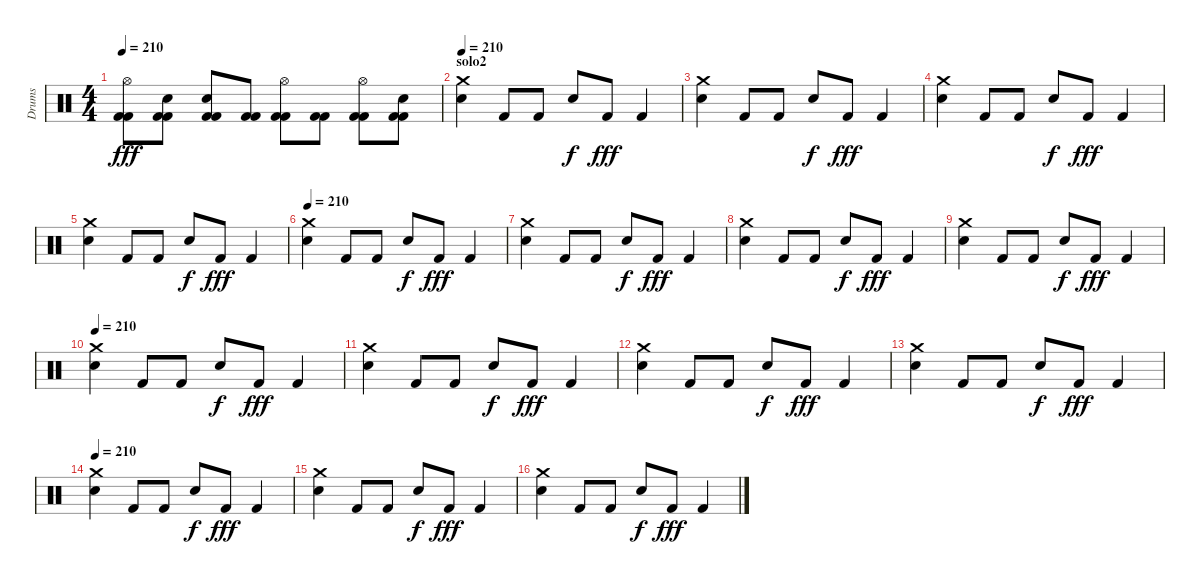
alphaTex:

\track ("Drums" "Drums") {instrument percussion}
\staff {score}
\articulation defaults
\ts (4 4)
\tempo 210
\clef neutral
\ks c
("Hi-Hat (open)" "Kick (hit) 2" "Kick (hit) 2").8{dy fff} ("Electric Snare (hit)" "Kick (hit) 2" "Kick (hit) 2").8 ("Electric Snare (hit)" "Kick (hit) 2" "Kick (hit) 2").8 ("Kick (hit) 2" "Kick (hit) 2").8 ("Hi-Hat (open)" "Kick (hit) 2" "Kick (hit) 2").8 ("Kick (hit) 2" "Kick (hit) 2").8 ("Hi-Hat (open)" "Kick (hit) 2" "Kick (hit) 2").8 ("Electric Snare (hit)" "Kick (hit) 2" "Kick (hit) 2").8 |
\section ("" "solo2")
\tempo 210
("Crash medium (hit)" "Electric Snare (hit)").4 "Kick (hit) 2".8 "Kick (hit) 2".8 "Electric Snare (hit)".8{dy f} "Kick (hit) 2".8{dy fff} "Kick (hit) 2".4 |
("Crash medium (hit)" "Electric Snare (hit)").4 "Kick (hit) 2".8 "Kick (hit) 2".8 "Electric Snare (hit)".8{dy f} "Kick (hit) 2".8{dy fff} "Kick (hit) 2".4 |
("Crash medium (hit)" "Electric Snare (hit)").4 "Kick (hit) 2".8 "Kick (hit) 2".8 "Electric Snare (hit)".8{dy f} "Kick (hit) 2".8{dy fff} "Kick (hit) 2".4 |
("Crash medium (hit)" "Electric Snare (hit)").4 "Kick (hit) 2".8 "Kick (hit) 2".8 "Electric Snare (hit)".8{dy f} "Kick (hit) 2".8{dy fff} "Kick (hit) 2".4 |
\tempo 210
("Crash medium (hit)" "Electric Snare (hit)").4 "Kick (hit) 2".8 "Kick (hit) 2".8 "Electric Snare (hit)".8{dy f} "Kick (hit) 2".8{dy fff} "Kick (hit) 2".4 |
("Crash medium (hit)" "Electric Snare (hit)").4 "Kick (hit) 2".8 "Kick (hit) 2".8 "Electric Snare (hit)".8{dy f} "Kick (hit) 2".8{dy fff} "Kick (hit) 2".4 |
("Crash medium (hit)" "Electric Snare (hit)").4 "Kick (hit) 2".8 "Kick (hit) 2".8 "Electric Snare (hit)".8{dy f} "Kick (hit) 2".8{dy fff} "Kick (hit) 2".4 |
("Crash medium (hit)" "Electric Snare (hit)").4 "Kick (hit) 2".8 "Kick (hit) 2".8 "Electric Snare (hit)".8{dy f} "Kick (hit) 2".8{dy fff} "Kick (hit) 2".4 |
\tempo 210
("Crash medium (hit)" "Electric Snare (hit)").4 "Kick (hit) 2".8 "Kick (hit) 2".8 "Electric Snare (hit)".8{dy f} "Kick (hit) 2".8{dy fff} "Kick (hit) 2".4 |
("Crash medium (hit)" "Electric Snare (hit)").4 "Kick (hit) 2".8 "Kick (hit) 2".8 "Electric Snare (hit)".8{dy f} "Kick (hit) 2".8{dy fff} "Kick (hit) 2".4 |
("Crash medium (hit)" "Electric Snare (hit)").4 "Kick (hit) 2".8 "Kick (hit) 2".8 "Electric Snare (hit)".8{dy f} "Kick (hit) 2".8{dy fff} "Kick (hit) 2".4 |
("Crash medium (hit)" "Electric Snare (hit)").4 "Kick (hit) 2".8 "Kick (hit) 2".8 "Electric Snare (hit)".8{dy f} "Kick (hit) 2".8{dy fff} "Kick (hit) 2".4 |
\tempo 210
("Crash medium (hit)" "Electric Snare (hit)").4 "Kick (hit) 2".8 "Kick (hit) 2".8 "Electric Snare (hit)".8{dy f} "Kick (hit) 2".8{dy fff} "Kick (hit) 2".4 |
("Crash medium (hit)" "Electric Snare (hit)").4 "Kick (hit) 2".8 "Kick (hit) 2".8 "Electric Snare (hit)".8{dy f} "Kick (hit) 2".8{dy fff} "Kick (hit) 2".4 |
("Crash medium (hit)" "Electric Snare (hit)").4 "Kick (hit) 2".8 "Kick (hit) 2".8 "Electric Snare (hit)".8{dy f} "Kick (hit) 2".8{dy fff} "Kick (hit) 2".4
